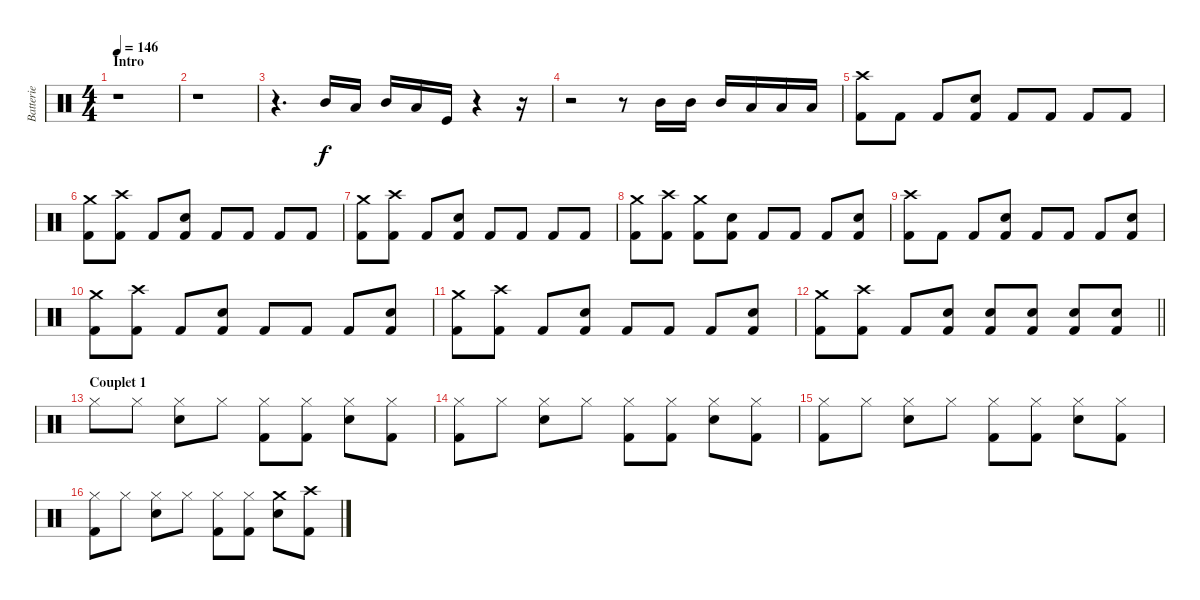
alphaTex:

\track ("Batterie" "Batterie") {instrument percussion}
\staff {score}
\articulation defaults
\ts (4 4)
\section ("" "Intro")
\tempo 146
\clef neutral
\ks c
r.1{dy f} |
r.1 |
r.4{d} "Mid Tom (hit)".16 "Low Tom (hit)".16 "Mid Tom (hit)".16 "Low Tom (hit)".16 "Kick (hit)".16 r.4 r.16 |
r.2 r.8 "Mid Tom (hit)".16 "Mid Tom (hit)".16 "Mid Tom (hit)".16 "Low Tom (hit)".16 "Low Tom (hit)".16 "Low Tom (hit)".16 |
("Kick (hit) 2" "Crash high (hit)").8 "Kick (hit) 2".8 "Kick (hit) 2".8 ("Kick (hit) 2" "Snare (hit) 2").8 "Kick (hit) 2".8 "Kick (hit) 2".8 "Kick (hit) 2".8 "Kick (hit) 2".8 |
("Kick (hit) 2" "Crash medium (hit)").8 ("Kick (hit) 2" "Crash high (hit)").8 "Kick (hit) 2".8 ("Kick (hit) 2" "Snare (hit) 2").8 "Kick (hit) 2".8 "Kick (hit) 2".8 "Kick (hit) 2".8 "Kick (hit) 2".8 |
("Kick (hit) 2" "Crash medium (hit)").8 ("Kick (hit) 2" "Crash high (hit)").8 "Kick (hit) 2".8 ("Kick (hit) 2" "Snare (hit) 2").8 "Kick (hit) 2".8 "Kick (hit) 2".8 "Kick (hit) 2".8 "Kick (hit) 2".8 |
("Kick (hit) 2" "Crash medium (hit)").8 ("Kick (hit) 2" "Crash high (hit)").8 ("Kick (hit) 2" "Crash medium (hit)").8 ("Kick (hit) 2" "Snare (hit) 2").8 "Kick (hit) 2".8 "Kick (hit) 2".8 "Kick (hit) 2".8 ("Kick (hit) 2" "Snare (hit) 2").8 |
("Kick (hit) 2" "Crash high (hit)").8 "Kick (hit) 2".8 "Kick (hit) 2".8 ("Kick (hit) 2" "Snare (hit) 2").8 "Kick (hit) 2".8 "Kick (hit) 2".8 "Kick (hit) 2".8 ("Kick (hit) 2" "Snare (hit) 2").8 |
("Kick (hit) 2" "Crash medium (hit)").8 ("Kick (hit) 2" "Crash high (hit)").8 "Kick (hit) 2".8 ("Kick (hit) 2" "Snare (hit) 2").8 "Kick (hit) 2".8 "Kick (hit) 2".8 "Kick (hit) 2".8 ("Kick (hit) 2" "Snare (hit) 2").8 |
("Kick (hit) 2" "Crash medium (hit)").8 ("Kick (hit) 2" "Crash high (hit)").8 "Kick (hit) 2".8 ("Kick (hit) 2" "Snare (hit) 2").8 "Kick (hit) 2".8 "Kick (hit) 2".8 "Kick (hit) 2".8 ("Kick (hit) 2" "Snare (hit) 2").8 |
\barLineRight lightlight
("Kick (hit) 2" "Crash medium (hit)").8 ("Kick (hit) 2" "Crash high (hit)").8 "Kick (hit) 2".8 ("Kick (hit) 2" "Snare (hit) 2").8 ("Kick (hit) 2" "Snare (hit) 2").8 ("Kick (hit) 2" "Snare (hit) 2").8 ("Kick (hit) 2" "Snare (hit) 2").8 ("Kick (hit) 2" "Snare (hit) 2").8 |
\section ("" "Couplet 1")
"Hi-Hat (closed)".8 "Hi-Hat (closed)".8 ("Snare (hit) 2" "Hi-Hat (closed)").8 "Hi-Hat (closed)".8 ("Kick (hit) 2" "Hi-Hat (closed)").8 ("Kick (hit) 2" "Hi-Hat (closed)").8 ("Snare (hit) 2" "Hi-Hat (closed)").8 ("Kick (hit) 2" "Hi-Hat (closed)").8 |
("Kick (hit) 2" "Hi-Hat (closed)").8 "Hi-Hat (closed)".8 ("Snare (hit) 2" "Hi-Hat (closed)").8 "Hi-Hat (closed)".8 ("Kick (hit) 2" "Hi-Hat (closed)").8 ("Kick (hit) 2" "Hi-Hat (closed)").8 ("Snare (hit) 2" "Hi-Hat (closed)").8 ("Kick (hit) 2" "Hi-Hat (closed)").8 |
("Kick (hit) 2" "Hi-Hat (closed)").8 "Hi-Hat (closed)".8 ("Snare (hit) 2" "Hi-Hat (closed)").8 "Hi-Hat (closed)".8 ("Kick (hit) 2" "Hi-Hat (closed)").8 ("Kick (hit) 2" "Hi-Hat (closed)").8 ("Snare (hit) 2" "Hi-Hat (closed)").8 ("Kick (hit) 2" "Hi-Hat (closed)").8 |
("Kick (hit) 2" "Hi-Hat (closed)").8 "Hi-Hat (closed)".8 ("Snare (hit) 2" "Hi-Hat (closed)").8 "Hi-Hat (closed)".8 ("Kick (hit) 2" "Hi-Hat (closed)").8 ("Kick (hit) 2" "Hi-Hat (closed)").8 ("Snare (hit) 2" "Crash medium (hit)").8 ("Kick (hit) 2" "Crash high (hit)").8
